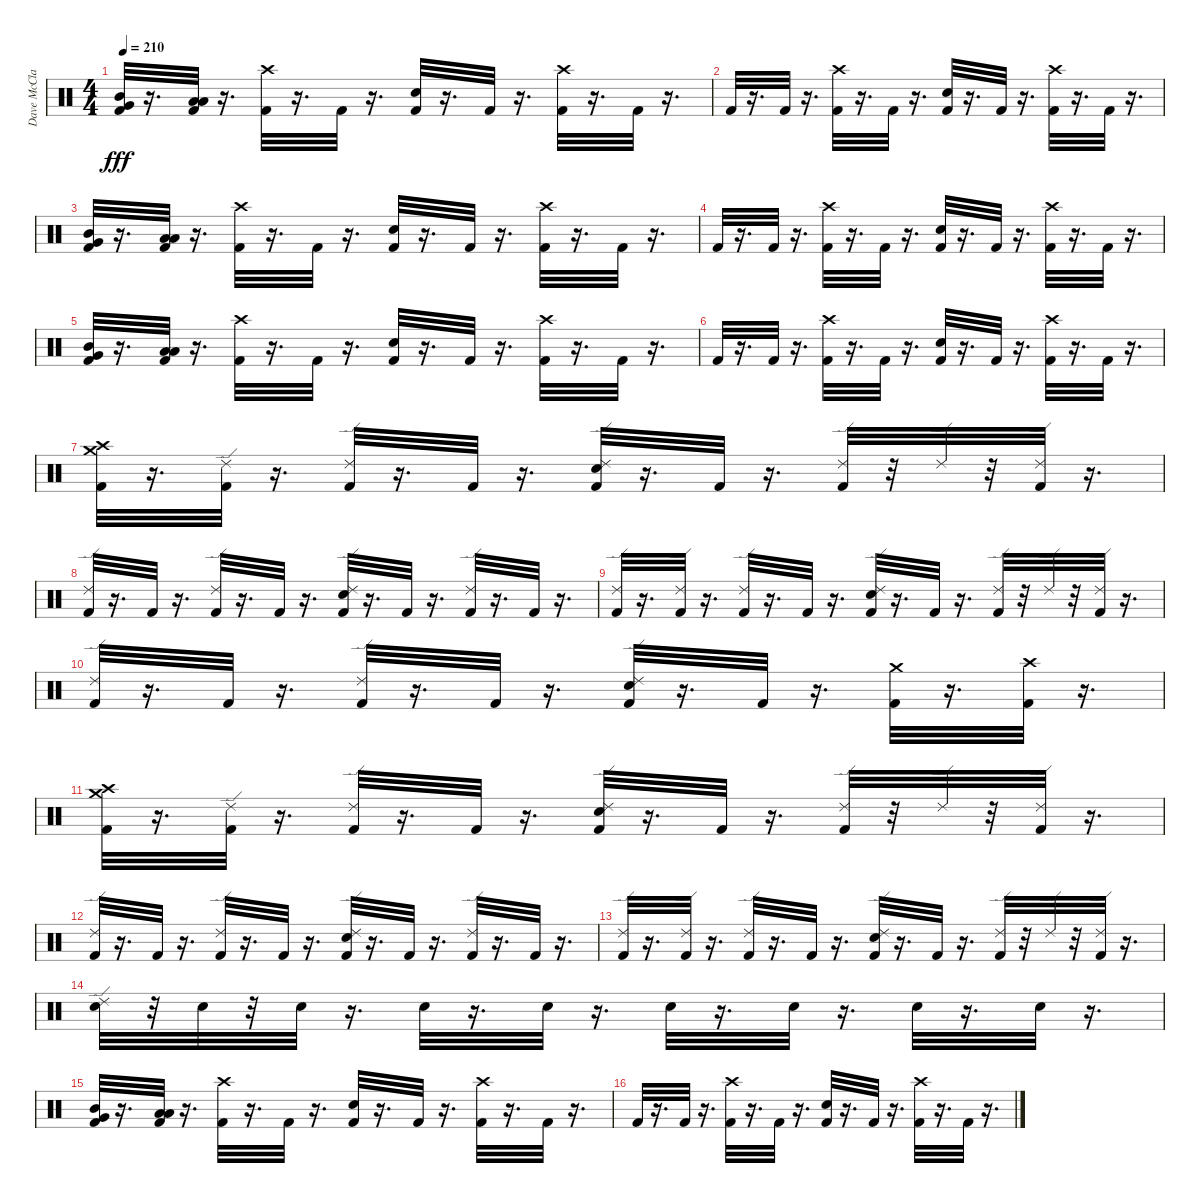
\track ("Dave McClain" "Dave McCla") {instrument percussion}
\staff {score}
\articulation defaults
\ts (4 4)
\tempo 210
\clef neutral
\ks c
("Very Low Tom (hit)" "Mid Tom (hit)" "Kick (hit) 2").32{dy fff} r.16{d} ("Low Tom (hit)" "Low Floor Tom (hit)" "Kick (hit) 2").32 r.16{d} ("Kick (hit) 2" "Crash high (hit)").32 r.16{d} "Kick (hit) 2".32 r.16{d} ("Kick (hit) 2" "Snare (hit) 2").32 r.16{d} "Kick (hit) 2".32 r.16{d} ("Kick (hit) 2" "Crash high (hit)").32 r.16{d} "Kick (hit) 2".32 r.16{d} |
"Kick (hit) 2".32 r.16{d} "Kick (hit) 2".32 r.16{d} ("Kick (hit) 2" "Crash high (hit)").32 r.16{d} "Kick (hit) 2".32 r.16{d} ("Kick (hit) 2" "Snare (hit) 2").32 r.16{d} "Kick (hit) 2".32 r.16{d} ("Kick (hit) 2" "Crash high (hit)").32 r.16{d} "Kick (hit) 2".32 r.16{d} |
("Very Low Tom (hit)" "Mid Tom (hit)" "Kick (hit) 2").32 r.16{d} ("Kick (hit) 2" "Low Tom (hit)" "Low Floor Tom (hit)").32 r.16{d} ("Kick (hit) 2" "Crash high (hit)").32 r.16{d} "Kick (hit) 2".32 r.16{d} ("Kick (hit) 2" "Snare (hit) 2").32 r.16{d} "Kick (hit) 2".32 r.16{d} ("Kick (hit) 2" "Crash high (hit)").32 r.16{d} "Kick (hit) 2".32 r.16{d} |
"Kick (hit) 2".32 r.16{d} "Kick (hit) 2".32 r.16{d} ("Kick (hit) 2" "Crash high (hit)").32 r.16{d} "Kick (hit) 2".32 r.16{d} ("Kick (hit) 2" "Snare (hit) 2").32 r.16{d} "Kick (hit) 2".32 r.16{d} ("Kick (hit) 2" "Crash high (hit)").32 r.16{d} "Kick (hit) 2".32 r.16{d} |
("Very Low Tom (hit)" "Mid Tom (hit)" "Kick (hit) 2").32 r.16{d} ("Low Tom (hit)" "Low Floor Tom (hit)" "Kick (hit) 2").32 r.16{d} ("Kick (hit) 2" "Crash high (hit)").32 r.16{d} "Kick (hit) 2".32 r.16{d} ("Kick (hit) 2" "Snare (hit) 2").32 r.16{d} "Kick (hit) 2".32 r.16{d} ("Kick (hit) 2" "Crash high (hit)").32 r.16{d} "Kick (hit) 2".32 r.16{d} |
"Kick (hit) 2".32 r.16{d} "Kick (hit) 2".32 r.16{d} ("Kick (hit) 2" "Crash high (hit)").32 r.16{d} "Kick (hit) 2".32 r.16{d} ("Kick (hit) 2" "Snare (hit) 2").32 r.16{d} "Kick (hit) 2".32 r.16{d} ("Kick (hit) 2" "Crash high (hit)").32 r.16{d} "Kick (hit) 2".32 r.16{d} |
("Crash medium (hit)" "Crash high (hit)" "Kick (hit) 2").32 r.16{d} ("Ride (edge) 2" "Kick (hit) 2").32 r.16{d} ("Ride (edge) 2" "Kick (hit) 2").32 r.16{d} "Kick (hit) 2".32 r.16{d} ("Ride (edge) 2" "Snare (hit) 2" "Kick (hit) 2").32 r.16{d} "Kick (hit) 2".32 r.16{d} ("Ride (edge) 2" "Kick (hit) 2").32 r.32 "Ride (edge) 2".32 r.32 ("Ride (edge) 2" "Kick (hit) 2").32 r.16{d} |
("Ride (edge) 2" "Kick (hit) 2").32 r.16{d} "Kick (hit) 2".32 r.16{d} ("Ride (edge) 2" "Kick (hit) 2").32 r.16{d} "Kick (hit) 2".32 r.16{d} ("Ride (edge) 2" "Snare (hit) 2" "Kick (hit) 2").32 r.16{d} "Kick (hit) 2".32 r.16{d} ("Ride (edge) 2" "Kick (hit) 2").32 r.16{d} "Kick (hit) 2".32 r.16{d} |
("Ride (edge) 2" "Kick (hit) 2").32 r.16{d} ("Ride (edge) 2" "Kick (hit) 2").32 r.16{d} ("Ride (edge) 2" "Kick (hit) 2").32 r.16{d} "Kick (hit) 2".32 r.16{d} ("Ride (edge) 2" "Snare (hit) 2" "Kick (hit) 2").32 r.16{d} "Kick (hit) 2".32 r.16{d} ("Ride (edge) 2" "Kick (hit) 2").32 r.32 "Ride (edge) 2".32 r.32 ("Ride (edge) 2" "Kick (hit) 2").32 r.16{d} |
("Ride (edge) 2" "Kick (hit) 2").32 r.16{d} "Kick (hit) 2".32 r.16{d} ("Ride (edge) 2" "Kick (hit) 2").32 r.16{d} "Kick (hit) 2".32 r.16{d} ("Ride (edge) 2" "Snare (hit) 2" "Kick (hit) 2").32 r.16{d} "Kick (hit) 2".32 r.16{d} ("Crash medium (hit)" "Kick (hit) 2").32 r.16{d} ("Crash high (hit)" "Kick (hit) 2").32 r.16{d} |
("Crash medium (hit)" "Crash high (hit)" "Kick (hit) 2").32 r.16{d} ("Ride (edge) 2" "Kick (hit) 2").32 r.16{d} ("Ride (edge) 2" "Kick (hit) 2").32 r.16{d} "Kick (hit) 2".32 r.16{d} ("Ride (edge) 2" "Snare (hit) 2" "Kick (hit) 2").32 r.16{d} "Kick (hit) 2".32 r.16{d} ("Ride (edge) 2" "Kick (hit) 2").32 r.32 "Ride (edge) 2".32 r.32 ("Ride (edge) 2" "Kick (hit) 2").32 r.16{d} |
("Ride (edge) 2" "Kick (hit) 2").32 r.16{d} "Kick (hit) 2".32 r.16{d} ("Ride (edge) 2" "Kick (hit) 2").32 r.16{d} "Kick (hit) 2".32 r.16{d} ("Ride (edge) 2" "Snare (hit) 2" "Kick (hit) 2").32 r.16{d} "Kick (hit) 2".32 r.16{d} ("Ride (edge) 2" "Kick (hit) 2").32 r.16{d} "Kick (hit) 2".32 r.16{d} |
("Ride (edge) 2" "Kick (hit) 2").32 r.16{d} ("Ride (edge) 2" "Kick (hit) 2").32 r.16{d} ("Ride (edge) 2" "Kick (hit) 2").32 r.16{d} "Kick (hit) 2".32 r.16{d} ("Ride (edge) 2" "Snare (hit) 2" "Kick (hit) 2").32 r.16{d} "Kick (hit) 2".32 r.16{d} ("Ride (edge) 2" "Kick (hit) 2").32 r.32 "Ride (edge) 2".32 r.32 ("Ride (edge) 2" "Kick (hit) 2").32 r.16{d} |
("Snare (hit) 2" "Ride (edge) 2").32 r.32 "Snare (hit) 2".32 r.32 "Snare (hit) 2".32 r.16{d} "Snare (hit) 2".32 r.16{d} "Snare (hit) 2".32 r.16{d} "Snare (hit) 2".32 r.16{d} "Snare (hit) 2".32 r.16{d} "Snare (hit) 2".32 r.16{d} "Snare (hit) 2".32 r.16{d} |
("Very Low Tom (hit)" "Mid Tom (hit)" "Kick (hit) 2").32 r.16{d} ("Kick (hit) 2" "Low Tom (hit)" "Low Floor Tom (hit)").32 r.16{d} ("Kick (hit) 2" "Crash high (hit)").32 r.16{d} "Kick (hit) 2".32 r.16{d} ("Kick (hit) 2" "Snare (hit) 2").32 r.16{d} "Kick (hit) 2".32 r.16{d} ("Kick (hit) 2" "Crash high (hit)").32 r.16{d} "Kick (hit) 2".32 r.16{d} |
"Kick (hit) 2".32 r.16{d} "Kick (hit) 2".32 r.16{d} ("Kick (hit) 2" "Crash high (hit)").32 r.16{d} "Kick (hit) 2".32 r.16{d} ("Kick (hit) 2" "Snare (hit) 2").32 r.16{d} "Kick (hit) 2".32 r.16{d} ("Kick (hit) 2" "Crash high (hit)").32 r.16{d} "Kick (hit) 2".32 r.16{d}
